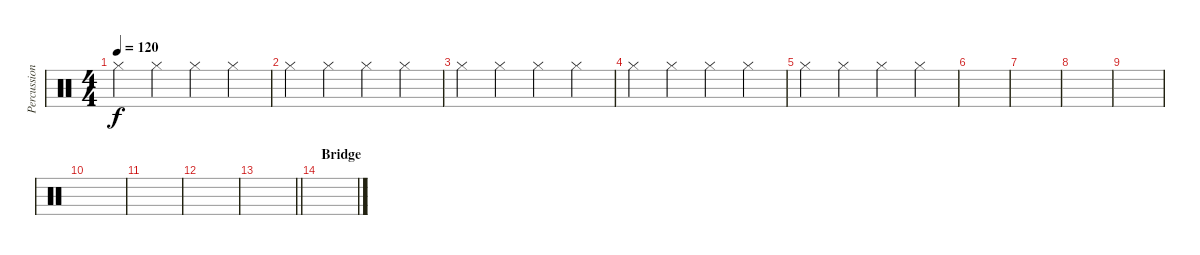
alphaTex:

\track ("Percussion" "Percussion") {instrument percussion}
\staff {score}
\articulation defaults
\ts (4 4)
\tempo 120
\clef neutral
\ks c "Hi-Hat (closed)".4{dy f} "Hi-Hat (closed)".4 "Hi-Hat (closed)".4 "Hi-Hat (closed)".4
|
"Hi-Hat (closed)".4 "Hi-Hat (closed)".4 "Hi-Hat (closed)".4 "Hi-Hat (closed)".4 |
"Hi-Hat (closed)".4 "Hi-Hat (closed)".4 "Hi-Hat (closed)".4 "Hi-Hat (closed)".4 |
"Hi-Hat (closed)".4 "Hi-Hat (closed)".4 "Hi-Hat (closed)".4 "Hi-Hat (closed)".4 |
"Hi-Hat (closed)".4 "Hi-Hat (closed)".4 "Hi-Hat (closed)".4 "Hi-Hat (closed)".4 |
|
|
|
|
|
|
|
\barLineRight lightlight
|
\section ("" "Bridge")
